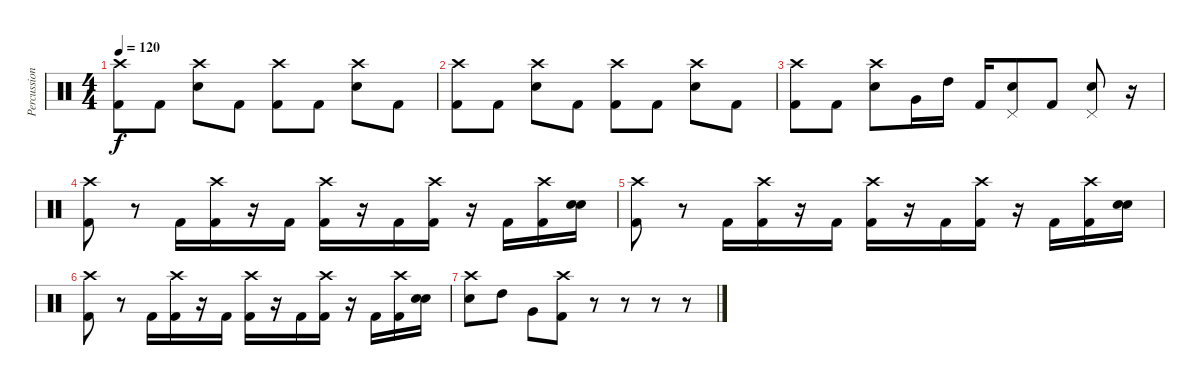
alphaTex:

\track ("Percussion" "Percussion") {instrument percussion}
\staff {score}
\articulation defaults
\ts (4 4)
\tempo 120
\clef neutral
\ks c
("Crash high (hit)" "Kick (hit) 2").8{dy f} "Kick (hit) 2".8 ("Crash high (hit)" "Electric Snare (hit)").8 "Kick (hit) 2".8 ("Crash high (hit)" "Kick (hit) 2").8 "Kick (hit) 2".8 ("Crash high (hit)" "Electric Snare (hit)").8 "Kick (hit) 2".8 |
("Crash high (hit)" "Kick (hit) 2").8 "Kick (hit) 2".8 ("Crash high (hit)" "Electric Snare (hit)").8 "Kick (hit) 2".8 ("Crash high (hit)" "Kick (hit) 2").8 "Kick (hit) 2".8 ("Crash high (hit)" "Electric Snare (hit)").8 "Kick (hit) 2".8 |
("Crash high (hit)" "Kick (hit) 2").8 "Kick (hit) 2".8 ("Crash high (hit)" "Electric Snare (hit)").8 "Very Low Tom (hit)".16 "High Tom (hit)".16 "Kick (hit) 2".16 ("Pedal Hi-Hat (hit)" "Electric Snare (hit)").8 "Kick (hit) 2".8 ("Pedal Hi-Hat (hit)" "Electric Snare (hit)").8 r.16 |
("Crash high (hit)" "Kick (hit) 2").8 r.8 "Kick (hit) 2".16 ("Crash high (hit)" "Kick (hit) 2").16 r.16 "Kick (hit) 2".16 ("Crash high (hit)" "Kick (hit) 2").16 r.16 "Kick (hit) 2".16 ("Crash high (hit)" "Kick (hit) 2").16 r.16 "Kick (hit) 2".16 ("Crash high (hit)" "Kick (hit) 2").16 ("Snare (hit)" "Electric Snare (hit)").16 |
("Crash high (hit)" "Kick (hit) 2").8 r.8 "Kick (hit) 2".16 ("Crash high (hit)" "Kick (hit) 2").16 r.16 "Kick (hit) 2".16 ("Crash high (hit)" "Kick (hit) 2").16 r.16 "Kick (hit) 2".16 ("Crash high (hit)" "Kick (hit) 2").16 r.16 "Kick (hit) 2".16 ("Crash high (hit)" "Kick (hit) 2").16 ("Snare (hit)" "Electric Snare (hit)").16 |
("Crash high (hit)" "Kick (hit) 2").8 r.8 "Kick (hit) 2".16 ("Crash high (hit)" "Kick (hit) 2").16 r.16 "Kick (hit) 2".16 ("Crash high (hit)" "Kick (hit) 2").16 r.16 "Kick (hit) 2".16 ("Crash high (hit)" "Kick (hit) 2").16 r.16 "Kick (hit) 2".16 ("Crash high (hit)" "Kick (hit) 2").16 ("Snare (hit)" "Electric Snare (hit)").16 |
("Crash high (hit)" "Electric Snare (hit)").8 "High Tom (hit)".8 "Very Low Tom (hit)".8 ("Crash high (hit)" "Kick (hit) 2").8 r.8 r.8 r.8 r.8
